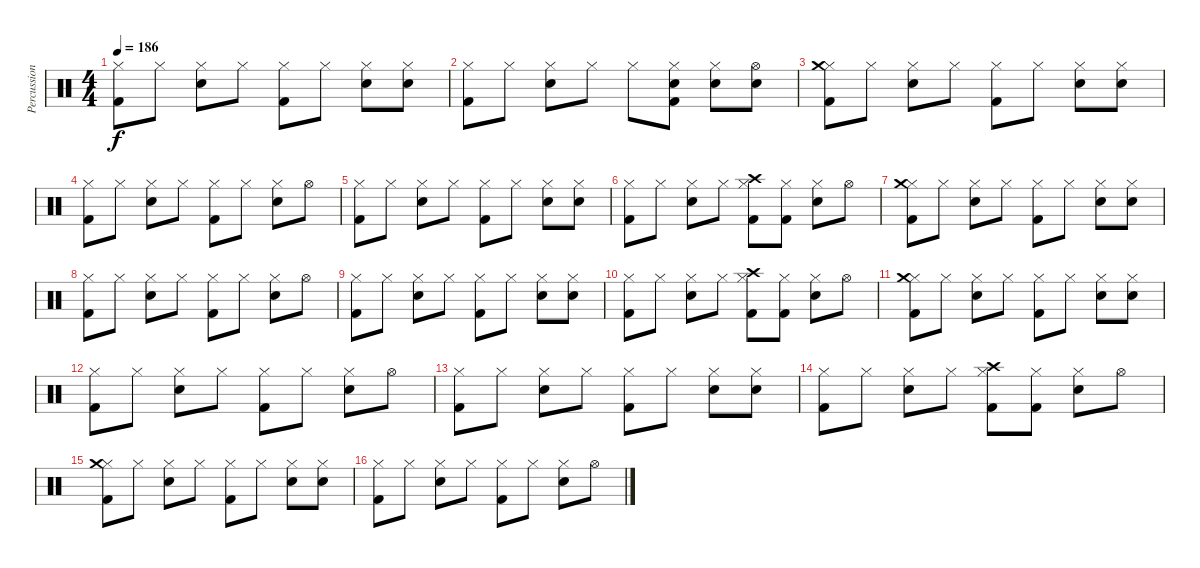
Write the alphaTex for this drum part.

\track ("Percussions" "Percussion") {instrument percussion}
\staff {score}
\articulation defaults
\ts (4 4)
\tempo 186
\clef neutral
\ks c
("Hi-Hat (closed)" "Kick (hit) 2").8{dy f} "Hi-Hat (closed)".8 ("Hi-Hat (closed)" "Electric Snare (hit)").8 "Hi-Hat (closed)".8 ("Hi-Hat (closed)" "Kick (hit) 2").8 "Hi-Hat (closed)".8 ("Hi-Hat (closed)" "Electric Snare (hit)").8 ("Hi-Hat (closed)" "Electric Snare (hit)").8 |
("Hi-Hat (closed)" "Kick (hit) 2").8 "Hi-Hat (closed)".8 ("Hi-Hat (closed)" "Electric Snare (hit)").8 "Hi-Hat (closed)".8 "Hi-Hat (closed)".8 ("Hi-Hat (closed)" "Electric Snare (hit)" "Kick (hit) 2").8 ("Hi-Hat (closed)" "Electric Snare (hit)").8 ("Hi-Hat (open)" "Electric Snare (hit)").8 |
("Hi-Hat (closed)" "Crash medium (hit)" "Kick (hit) 2").8 "Hi-Hat (closed)".8 ("Hi-Hat (closed)" "Electric Snare (hit)").8 "Hi-Hat (closed)".8 ("Hi-Hat (closed)" "Kick (hit) 2").8 "Hi-Hat (closed)".8 ("Hi-Hat (closed)" "Electric Snare (hit)").8 ("Hi-Hat (closed)" "Electric Snare (hit)").8 |
("Hi-Hat (closed)" "Kick (hit) 2").8 "Hi-Hat (closed)".8 ("Hi-Hat (closed)" "Electric Snare (hit)").8 "Hi-Hat (closed)".8 ("Hi-Hat (closed)" "Kick (hit) 2").8 "Hi-Hat (closed)".8 ("Hi-Hat (closed)" "Electric Snare (hit)").8 "Hi-Hat (open)".8 |
("Hi-Hat (closed)" "Kick (hit) 2").8 "Hi-Hat (closed)".8 ("Hi-Hat (closed)" "Electric Snare (hit)").8 "Hi-Hat (closed)".8 ("Hi-Hat (closed)" "Kick (hit) 2").8 "Hi-Hat (closed)".8 ("Hi-Hat (closed)" "Electric Snare (hit)").8 ("Hi-Hat (closed)" "Electric Snare (hit)").8 |
("Hi-Hat (closed)" "Kick (hit) 2").8 "Hi-Hat (closed)".8 ("Hi-Hat (closed)" "Electric Snare (hit)").8 "Hi-Hat (closed)".8 ("Hi-Hat (closed)" "Crash high (hit)" "Kick (hit) 2").8 ("Hi-Hat (closed)" "Kick (hit) 2").8 ("Hi-Hat (closed)" "Electric Snare (hit)").8 "Hi-Hat (open)".8 |
("Hi-Hat (closed)" "Crash medium (hit)" "Kick (hit) 2").8 "Hi-Hat (closed)".8 ("Hi-Hat (closed)" "Electric Snare (hit)").8 "Hi-Hat (closed)".8 ("Hi-Hat (closed)" "Kick (hit) 2").8 "Hi-Hat (closed)".8 ("Hi-Hat (closed)" "Electric Snare (hit)").8 ("Hi-Hat (closed)" "Electric Snare (hit)").8 |
("Hi-Hat (closed)" "Kick (hit) 2").8 "Hi-Hat (closed)".8 ("Hi-Hat (closed)" "Electric Snare (hit)").8 "Hi-Hat (closed)".8 ("Hi-Hat (closed)" "Kick (hit) 2").8 "Hi-Hat (closed)".8 ("Hi-Hat (closed)" "Electric Snare (hit)").8 "Hi-Hat (open)".8 |
("Hi-Hat (closed)" "Kick (hit) 2").8 "Hi-Hat (closed)".8 ("Hi-Hat (closed)" "Electric Snare (hit)").8 "Hi-Hat (closed)".8 ("Hi-Hat (closed)" "Kick (hit) 2").8 "Hi-Hat (closed)".8 ("Hi-Hat (closed)" "Electric Snare (hit)").8 ("Hi-Hat (closed)" "Electric Snare (hit)").8 |
("Hi-Hat (closed)" "Kick (hit) 2").8 "Hi-Hat (closed)".8 ("Hi-Hat (closed)" "Electric Snare (hit)").8 "Hi-Hat (closed)".8 ("Hi-Hat (closed)" "Crash high (hit)" "Kick (hit) 2").8 ("Hi-Hat (closed)" "Kick (hit) 2").8 ("Hi-Hat (closed)" "Electric Snare (hit)").8 "Hi-Hat (open)".8 |
("Hi-Hat (closed)" "Crash medium (hit)" "Kick (hit) 2").8 "Hi-Hat (closed)".8 ("Hi-Hat (closed)" "Electric Snare (hit)").8 "Hi-Hat (closed)".8 ("Hi-Hat (closed)" "Kick (hit) 2").8 "Hi-Hat (closed)".8 ("Hi-Hat (closed)" "Electric Snare (hit)").8 ("Hi-Hat (closed)" "Electric Snare (hit)").8 |
("Hi-Hat (closed)" "Kick (hit) 2").8 "Hi-Hat (closed)".8 ("Hi-Hat (closed)" "Electric Snare (hit)").8 "Hi-Hat (closed)".8 ("Hi-Hat (closed)" "Kick (hit) 2").8 "Hi-Hat (closed)".8 ("Hi-Hat (closed)" "Electric Snare (hit)").8 "Hi-Hat (open)".8 |
("Hi-Hat (closed)" "Kick (hit) 2").8 "Hi-Hat (closed)".8 ("Hi-Hat (closed)" "Electric Snare (hit)").8 "Hi-Hat (closed)".8 ("Hi-Hat (closed)" "Kick (hit) 2").8 "Hi-Hat (closed)".8 ("Hi-Hat (closed)" "Electric Snare (hit)").8 ("Hi-Hat (closed)" "Electric Snare (hit)").8 |
("Hi-Hat (closed)" "Kick (hit) 2").8 "Hi-Hat (closed)".8 ("Hi-Hat (closed)" "Electric Snare (hit)").8 "Hi-Hat (closed)".8 ("Hi-Hat (closed)" "Crash high (hit)" "Kick (hit) 2").8 ("Hi-Hat (closed)" "Kick (hit) 2").8 ("Hi-Hat (closed)" "Electric Snare (hit)").8 "Hi-Hat (open)".8 |
("Hi-Hat (closed)" "Crash medium (hit)" "Kick (hit) 2").8 "Hi-Hat (closed)".8 ("Hi-Hat (closed)" "Electric Snare (hit)").8 "Hi-Hat (closed)".8 ("Hi-Hat (closed)" "Kick (hit) 2").8 "Hi-Hat (closed)".8 ("Hi-Hat (closed)" "Electric Snare (hit)").8 ("Hi-Hat (closed)" "Electric Snare (hit)").8 |
("Hi-Hat (closed)" "Kick (hit) 2").8 "Hi-Hat (closed)".8 ("Hi-Hat (closed)" "Electric Snare (hit)").8 "Hi-Hat (closed)".8 ("Hi-Hat (closed)" "Kick (hit) 2").8 "Hi-Hat (closed)".8 ("Hi-Hat (closed)" "Electric Snare (hit)").8 "Hi-Hat (open)".8
